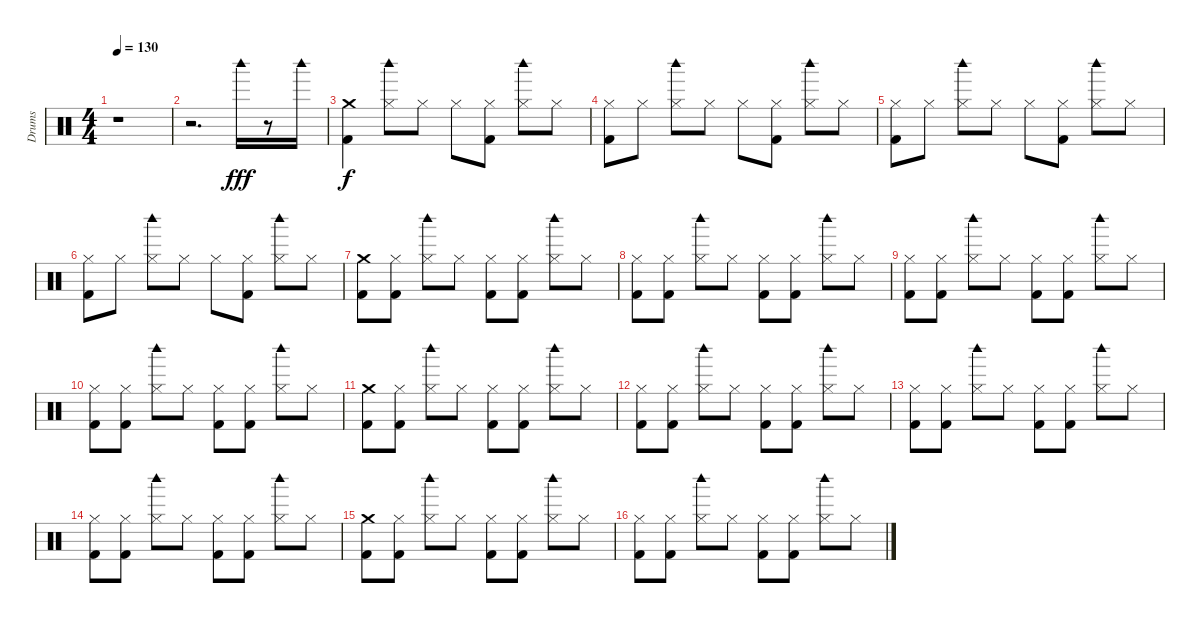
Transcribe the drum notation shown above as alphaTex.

\track ("Drums" "Drums") {instrument percussion}
\staff {score}
\articulation defaults
\ts (4 4)
\tempo 130
\clef neutral
\ks c
r.1{dy f} |
r.2{d} "Woodblock high (hit)".16{dy fff} r.8 "Woodblock high (hit)".16 |
("Crash medium (hit)" "Kick (hit) 2").4{dy f} ("Hi-Hat (closed)" "Woodblock high (hit)").8 "Hi-Hat (closed)".8 "Hi-Hat (closed)".8 ("Hi-Hat (closed)" "Kick (hit) 2").8 ("Hi-Hat (closed)" "Woodblock high (hit)").8 "Hi-Hat (closed)".8 |
("Hi-Hat (closed)" "Kick (hit) 2").8 "Hi-Hat (closed)".8 ("Hi-Hat (closed)" "Woodblock high (hit)").8 "Hi-Hat (closed)".8 "Hi-Hat (closed)".8 ("Hi-Hat (closed)" "Kick (hit) 2").8 ("Hi-Hat (closed)" "Woodblock high (hit)").8 "Hi-Hat (closed)".8 |
("Hi-Hat (closed)" "Kick (hit) 2").8 "Hi-Hat (closed)".8 ("Hi-Hat (closed)" "Woodblock high (hit)").8 "Hi-Hat (closed)".8 "Hi-Hat (closed)".8 ("Hi-Hat (closed)" "Kick (hit) 2").8 ("Hi-Hat (closed)" "Woodblock high (hit)").8 "Hi-Hat (closed)".8 |
("Hi-Hat (closed)" "Kick (hit) 2").8 "Hi-Hat (closed)".8 ("Hi-Hat (closed)" "Woodblock high (hit)").8 "Hi-Hat (closed)".8 "Hi-Hat (closed)".8 ("Hi-Hat (closed)" "Kick (hit) 2").8 ("Hi-Hat (closed)" "Woodblock high (hit)").8 "Hi-Hat (closed)".8 |
("Crash medium (hit)" "Kick (hit) 2").8 ("Hi-Hat (closed)" "Kick (hit) 2").8 ("Hi-Hat (closed)" "Woodblock high (hit)").8 "Hi-Hat (closed)".8 ("Hi-Hat (closed)" "Kick (hit) 2").8 ("Hi-Hat (closed)" "Kick (hit) 2").8 ("Hi-Hat (closed)" "Woodblock high (hit)").8 "Hi-Hat (closed)".8 |
("Hi-Hat (closed)" "Kick (hit) 2").8 ("Hi-Hat (closed)" "Kick (hit) 2").8 ("Hi-Hat (closed)" "Woodblock high (hit)").8 "Hi-Hat (closed)".8 ("Hi-Hat (closed)" "Kick (hit) 2").8 ("Hi-Hat (closed)" "Kick (hit) 2").8 ("Hi-Hat (closed)" "Woodblock high (hit)").8 "Hi-Hat (closed)".8 |
("Hi-Hat (closed)" "Kick (hit) 2").8 ("Hi-Hat (closed)" "Kick (hit) 2").8 ("Hi-Hat (closed)" "Woodblock high (hit)").8 "Hi-Hat (closed)".8 ("Hi-Hat (closed)" "Kick (hit) 2").8 ("Hi-Hat (closed)" "Kick (hit) 2").8 ("Hi-Hat (closed)" "Woodblock high (hit)").8 "Hi-Hat (closed)".8 |
("Hi-Hat (closed)" "Kick (hit) 2").8 ("Hi-Hat (closed)" "Kick (hit) 2").8 ("Hi-Hat (closed)" "Woodblock high (hit)").8 "Hi-Hat (closed)".8 ("Hi-Hat (closed)" "Kick (hit) 2").8 ("Hi-Hat (closed)" "Kick (hit) 2").8 ("Hi-Hat (closed)" "Woodblock high (hit)").8 "Hi-Hat (closed)".8 |
("Crash medium (hit)" "Kick (hit) 2").8 ("Hi-Hat (closed)" "Kick (hit) 2").8 ("Hi-Hat (closed)" "Woodblock high (hit)").8 "Hi-Hat (closed)".8 ("Hi-Hat (closed)" "Kick (hit) 2").8 ("Hi-Hat (closed)" "Kick (hit) 2").8 ("Hi-Hat (closed)" "Woodblock high (hit)").8 "Hi-Hat (closed)".8 |
("Hi-Hat (closed)" "Kick (hit) 2").8 ("Hi-Hat (closed)" "Kick (hit) 2").8 ("Hi-Hat (closed)" "Woodblock high (hit)").8 "Hi-Hat (closed)".8 ("Hi-Hat (closed)" "Kick (hit) 2").8 ("Hi-Hat (closed)" "Kick (hit) 2").8 ("Hi-Hat (closed)" "Woodblock high (hit)").8 "Hi-Hat (closed)".8 |
("Hi-Hat (closed)" "Kick (hit) 2").8 ("Hi-Hat (closed)" "Kick (hit) 2").8 ("Hi-Hat (closed)" "Woodblock high (hit)").8 "Hi-Hat (closed)".8 ("Hi-Hat (closed)" "Kick (hit) 2").8 ("Hi-Hat (closed)" "Kick (hit) 2").8 ("Hi-Hat (closed)" "Woodblock high (hit)").8 "Hi-Hat (closed)".8 |
("Hi-Hat (closed)" "Kick (hit) 2").8 ("Hi-Hat (closed)" "Kick (hit) 2").8 ("Hi-Hat (closed)" "Woodblock high (hit)").8 "Hi-Hat (closed)".8 ("Hi-Hat (closed)" "Kick (hit) 2").8 ("Hi-Hat (closed)" "Kick (hit) 2").8 ("Hi-Hat (closed)" "Woodblock high (hit)").8 "Hi-Hat (closed)".8 |
("Crash medium (hit)" "Kick (hit) 2").8 ("Hi-Hat (closed)" "Kick (hit) 2").8 ("Hi-Hat (closed)" "Woodblock high (hit)").8 "Hi-Hat (closed)".8 ("Hi-Hat (closed)" "Kick (hit) 2").8 ("Hi-Hat (closed)" "Kick (hit) 2").8 ("Hi-Hat (closed)" "Woodblock high (hit)").8 "Hi-Hat (closed)".8 |
("Hi-Hat (closed)" "Kick (hit) 2").8 ("Hi-Hat (closed)" "Kick (hit) 2").8 ("Hi-Hat (closed)" "Woodblock high (hit)").8 "Hi-Hat (closed)".8 ("Hi-Hat (closed)" "Kick (hit) 2").8 ("Hi-Hat (closed)" "Kick (hit) 2").8 ("Hi-Hat (closed)" "Woodblock high (hit)").8 "Hi-Hat (closed)".8
